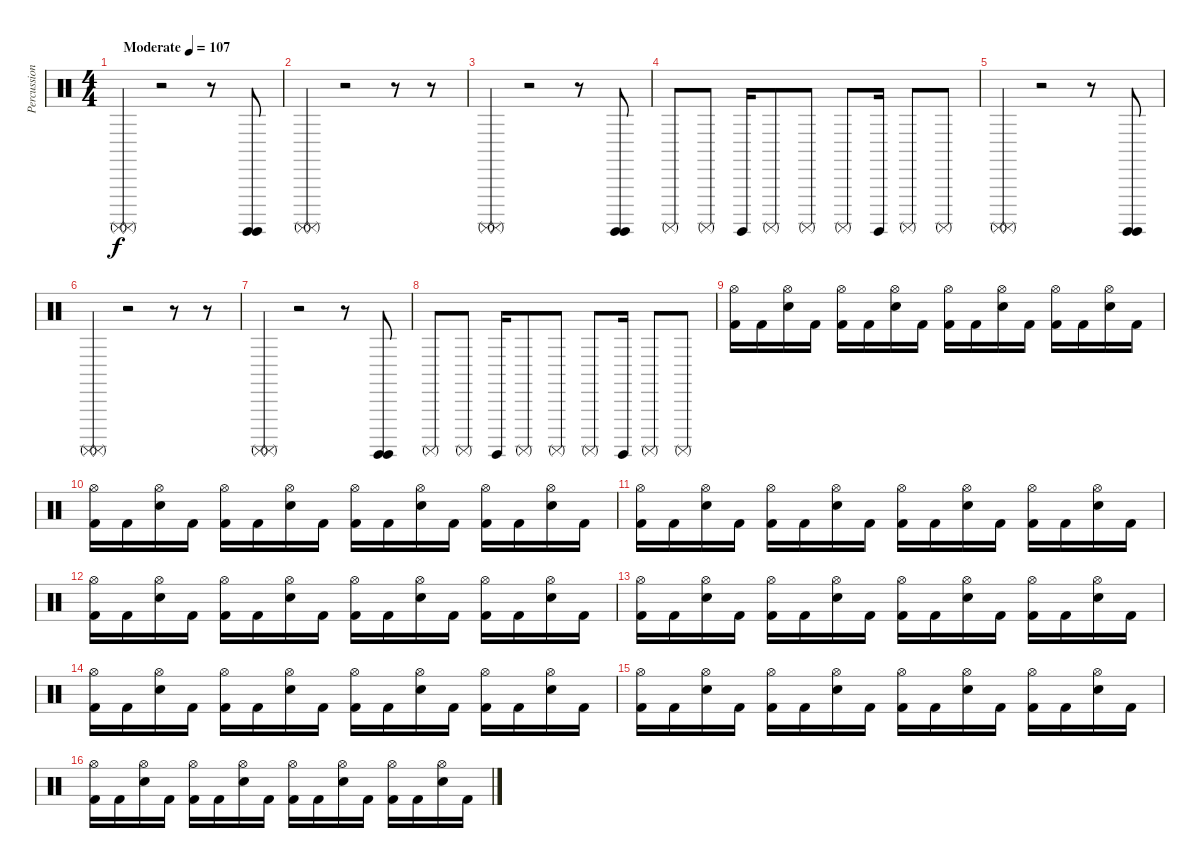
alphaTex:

\track ("Percussion" "Percussion") {instrument percussion}
\staff {score}
\articulation defaults
\ts (4 4)
\tempo (107 "Moderate")
\clef neutral
\ks c
("Surdo (mute)" "Surdo (mute)").4{dy f} r.2 r.8 ("Surdo (hit)" "Surdo (hit)").8 |
("Surdo (mute)" "Surdo (mute)").4 r.2 r.8 r.8 |
("Surdo (mute)" "Surdo (mute)").4 r.2 r.8 ("Surdo (hit)" "Surdo (hit)").8 |
"Surdo (mute)".8 "Surdo (mute)".8 "Surdo (hit)".16 "Surdo (mute)".8 "Surdo (mute)".8 "Surdo (mute)".8 "Surdo (hit)".16 "Surdo (mute)".8 "Surdo (mute)".8 |
("Surdo (mute)" "Surdo (mute)").4 r.2 r.8 ("Surdo (hit)" "Surdo (hit)").8 |
("Surdo (mute)" "Surdo (mute)").4 r.2 r.8 r.8 |
("Surdo (mute)" "Surdo (mute)").4 r.2 r.8 ("Surdo (hit)" "Surdo (hit)").8 |
"Surdo (mute)".8 "Surdo (mute)".8 "Surdo (hit)".16 "Surdo (mute)".8 "Surdo (mute)".8 "Surdo (mute)".8 "Surdo (hit)".16 "Surdo (mute)".8 "Surdo (mute)".8 |
("Hi-Hat (open)" "Kick (hit) 2").16 "Kick (hit) 2".16 ("Hi-Hat (open)" "Electric Snare (hit)").16 "Kick (hit) 2".16 ("Hi-Hat (open)" "Kick (hit) 2").16 "Kick (hit) 2".16 ("Hi-Hat (open)" "Electric Snare (hit)").16 "Kick (hit) 2".16 ("Hi-Hat (open)" "Kick (hit) 2").16 "Kick (hit) 2".16 ("Hi-Hat (open)" "Electric Snare (hit)").16 "Kick (hit) 2".16 ("Hi-Hat (open)" "Kick (hit) 2").16 "Kick (hit) 2".16 ("Hi-Hat (open)" "Electric Snare (hit)").16 "Kick (hit) 2".16 |
("Hi-Hat (open)" "Kick (hit) 2").16 "Kick (hit) 2".16 ("Hi-Hat (open)" "Electric Snare (hit)").16 "Kick (hit) 2".16 ("Hi-Hat (open)" "Kick (hit) 2").16 "Kick (hit) 2".16 ("Hi-Hat (open)" "Electric Snare (hit)").16 "Kick (hit) 2".16 ("Hi-Hat (open)" "Kick (hit) 2").16 "Kick (hit) 2".16 ("Hi-Hat (open)" "Electric Snare (hit)").16 "Kick (hit) 2".16 ("Hi-Hat (open)" "Kick (hit) 2").16 "Kick (hit) 2".16 ("Hi-Hat (open)" "Electric Snare (hit)").16 "Kick (hit) 2".16 |
("Hi-Hat (open)" "Kick (hit) 2").16 "Kick (hit) 2".16 ("Hi-Hat (open)" "Electric Snare (hit)").16 "Kick (hit) 2".16 ("Hi-Hat (open)" "Kick (hit) 2").16 "Kick (hit) 2".16 ("Hi-Hat (open)" "Electric Snare (hit)").16 "Kick (hit) 2".16 ("Hi-Hat (open)" "Kick (hit) 2").16 "Kick (hit) 2".16 ("Hi-Hat (open)" "Electric Snare (hit)").16 "Kick (hit) 2".16 ("Hi-Hat (open)" "Kick (hit) 2").16 "Kick (hit) 2".16 ("Hi-Hat (open)" "Electric Snare (hit)").16 "Kick (hit) 2".16 |
("Hi-Hat (open)" "Kick (hit) 2").16 "Kick (hit) 2".16 ("Hi-Hat (open)" "Electric Snare (hit)").16 "Kick (hit) 2".16 ("Hi-Hat (open)" "Kick (hit) 2").16 "Kick (hit) 2".16 ("Hi-Hat (open)" "Electric Snare (hit)").16 "Kick (hit) 2".16 ("Hi-Hat (open)" "Kick (hit) 2").16 "Kick (hit) 2".16 ("Hi-Hat (open)" "Electric Snare (hit)").16 "Kick (hit) 2".16 ("Hi-Hat (open)" "Kick (hit) 2").16 "Kick (hit) 2".16 ("Hi-Hat (open)" "Electric Snare (hit)").16 "Kick (hit) 2".16 |
("Hi-Hat (open)" "Kick (hit) 2").16 "Kick (hit) 2".16 ("Hi-Hat (open)" "Electric Snare (hit)").16 "Kick (hit) 2".16 ("Hi-Hat (open)" "Kick (hit) 2").16 "Kick (hit) 2".16 ("Hi-Hat (open)" "Electric Snare (hit)").16 "Kick (hit) 2".16 ("Hi-Hat (open)" "Kick (hit) 2").16 "Kick (hit) 2".16 ("Hi-Hat (open)" "Electric Snare (hit)").16 "Kick (hit) 2".16 ("Hi-Hat (open)" "Kick (hit) 2").16 "Kick (hit) 2".16 ("Hi-Hat (open)" "Electric Snare (hit)").16 "Kick (hit) 2".16 |
("Hi-Hat (open)" "Kick (hit) 2").16 "Kick (hit) 2".16 ("Hi-Hat (open)" "Electric Snare (hit)").16 "Kick (hit) 2".16 ("Hi-Hat (open)" "Kick (hit) 2").16 "Kick (hit) 2".16 ("Hi-Hat (open)" "Electric Snare (hit)").16 "Kick (hit) 2".16 ("Hi-Hat (open)" "Kick (hit) 2").16 "Kick (hit) 2".16 ("Hi-Hat (open)" "Electric Snare (hit)").16 "Kick (hit) 2".16 ("Hi-Hat (open)" "Kick (hit) 2").16 "Kick (hit) 2".16 ("Hi-Hat (open)" "Electric Snare (hit)").16 "Kick (hit) 2".16 |
("Hi-Hat (open)" "Kick (hit) 2").16 "Kick (hit) 2".16 ("Hi-Hat (open)" "Electric Snare (hit)").16 "Kick (hit) 2".16 ("Hi-Hat (open)" "Kick (hit) 2").16 "Kick (hit) 2".16 ("Hi-Hat (open)" "Electric Snare (hit)").16 "Kick (hit) 2".16 ("Hi-Hat (open)" "Kick (hit) 2").16 "Kick (hit) 2".16 ("Hi-Hat (open)" "Electric Snare (hit)").16 "Kick (hit) 2".16 ("Hi-Hat (open)" "Kick (hit) 2").16 "Kick (hit) 2".16 ("Hi-Hat (open)" "Electric Snare (hit)").16 "Kick (hit) 2".16 |
("Hi-Hat (open)" "Kick (hit) 2").16 "Kick (hit) 2".16 ("Hi-Hat (open)" "Electric Snare (hit)").16 "Kick (hit) 2".16 ("Hi-Hat (open)" "Kick (hit) 2").16 "Kick (hit) 2".16 ("Hi-Hat (open)" "Electric Snare (hit)").16 "Kick (hit) 2".16 ("Hi-Hat (open)" "Kick (hit) 2").16 "Kick (hit) 2".16 ("Hi-Hat (open)" "Electric Snare (hit)").16 "Kick (hit) 2".16 ("Hi-Hat (open)" "Kick (hit) 2").16 "Kick (hit) 2".16 ("Hi-Hat (open)" "Electric Snare (hit)").16 "Kick (hit) 2".16
